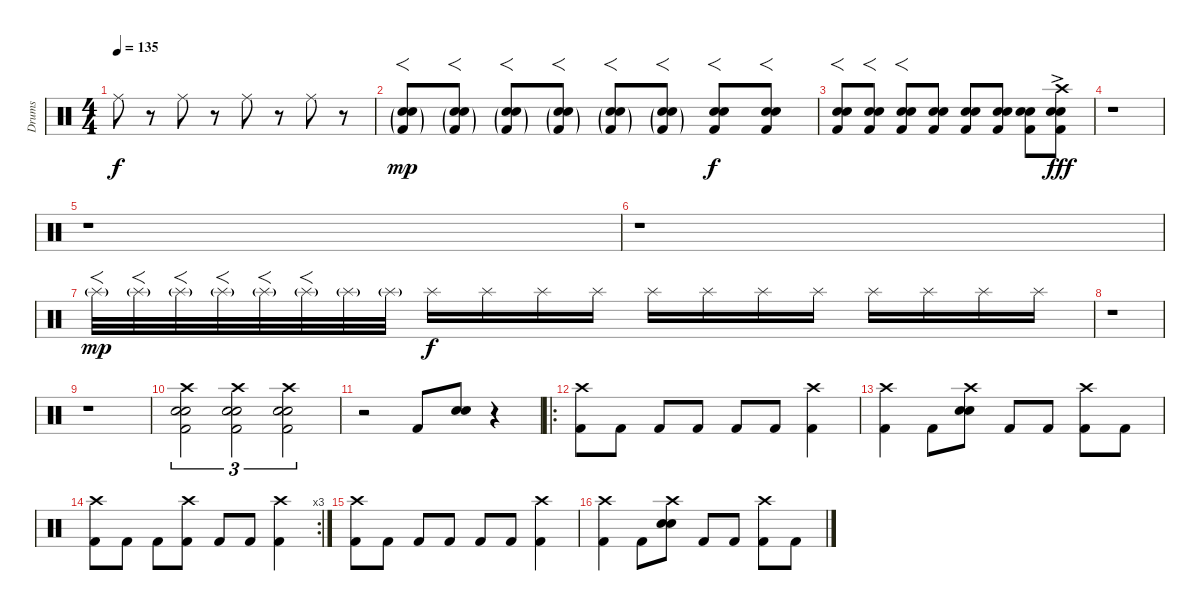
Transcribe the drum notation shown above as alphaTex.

\track ("Drums" "Drums") {instrument percussion}
\staff {score}
\articulation defaults
\ts (4 4)
\tempo 135
\clef neutral
\ks c "Ride (middle)".8{dy f}
r.8 "Ride (middle)".8 r.8 "Ride (middle)".8 r.8 "Ride (middle)".8 r.8 |
("Electric Snare (hit)"{g} "Snare (hit) 2"{g} "Kick (hit) 2"{g}).8{f dy mp} ("Electric Snare (hit)"{g} "Snare (hit) 2"{g} "Kick (hit) 2"{g}).8{f} ("Electric Snare (hit)"{g} "Snare (hit) 2"{g} "Kick (hit) 2"{g}).8{f} ("Electric Snare (hit)"{g} "Snare (hit) 2"{g} "Kick (hit) 2"{g}).8{f} ("Electric Snare (hit)"{g} "Snare (hit) 2"{g} "Kick (hit) 2"{g}).8{f} ("Electric Snare (hit)"{g} "Snare (hit) 2"{g} "Kick (hit) 2"{g}).8{f} ("Electric Snare (hit)" "Snare (hit) 2" "Kick (hit) 2").8{f dy f} ("Electric Snare (hit)" "Snare (hit) 2" "Kick (hit) 2").8{f} |
("Electric Snare (hit)" "Snare (hit) 2" "Kick (hit) 2").8{f} ("Electric Snare (hit)" "Snare (hit) 2" "Kick (hit) 2").8{f} ("Electric Snare (hit)" "Snare (hit) 2" "Kick (hit) 2").8{f} ("Electric Snare (hit)" "Snare (hit) 2" "Kick (hit) 2").8 ("Electric Snare (hit)" "Snare (hit) 2" "Kick (hit) 2").8 ("Electric Snare (hit)" "Snare (hit) 2" "Kick (hit) 2").8 ("Electric Snare (hit)" "Snare (hit) 2" "Kick (hit) 2").8 ("Crash high (hit)"{ac} "Electric Snare (hit)" "Snare (hit) 2" "Kick (hit) 2").8{dy fff} |
r.1 |
r.1 |
r.1 |
"Splash (hit)"{g}.32{f dy mp} "Splash (hit)"{g}.32{f} "Splash (hit)"{g}.32{f} "Splash (hit)"{g}.32{f} "Splash (hit)"{g}.32{f} "Splash (hit)"{g}.32{f} "Splash (hit)"{g}.32 "Splash (hit)"{g}.32 "Splash (hit)".16{dy f} "Splash (hit)".16 "Splash (hit)".16 "Splash (hit)".16 "Splash (hit)".16 "Splash (hit)".16 "Splash (hit)".16 "Splash (hit)".16 "Splash (hit)".16 "Splash (hit)".16 "Splash (hit)".16 "Splash (hit)".16 |
r.1 |
r.1 |
("Crash high (hit)" "Snare (hit) 2" "Electric Snare (hit)" "Kick (hit) 2").2{tu (3 2)} ("Crash high (hit)" "Snare (hit) 2" "Electric Snare (hit)" "Kick (hit) 2").2{tu (3 2)} ("Crash high (hit)" "Snare (hit) 2" "Electric Snare (hit)" "Kick (hit) 2").2{tu (3 2)} |
r.2 "Kick (hit) 2".8 ("Snare (hit) 2" "Electric Snare (hit)").8 r.4 |
\ro
("Crash high (hit)" "Kick (hit) 2").8 "Kick (hit) 2".8 "Kick (hit) 2".8 "Kick (hit) 2".8 "Kick (hit) 2".8 "Kick (hit) 2".8 ("Crash high (hit)" "Kick (hit) 2").4 |
("Crash high (hit)" "Kick (hit) 2").4 "Kick (hit) 2".8 ("Crash high (hit)" "Electric Snare (hit)" "Snare (hit) 2").8 "Kick (hit) 2".8 "Kick (hit) 2".8 ("Crash high (hit)" "Kick (hit) 2").8 "Kick (hit) 2".8 |
\rc 3
("Crash high (hit)" "Kick (hit) 2").8 "Kick (hit) 2".8 "Kick (hit) 2".8 ("Crash high (hit)" "Kick (hit) 2").8 "Kick (hit) 2".8 "Kick (hit) 2".8 ("Crash high (hit)" "Kick (hit) 2").4 |
("Crash high (hit)" "Kick (hit) 2").8 "Kick (hit) 2".8 "Kick (hit) 2".8 "Kick (hit) 2".8 "Kick (hit) 2".8 "Kick (hit) 2".8 ("Crash high (hit)" "Kick (hit) 2").4 |
("Crash high (hit)" "Kick (hit) 2").4 "Kick (hit) 2".8 ("Crash high (hit)" "Electric Snare (hit)" "Snare (hit) 2").8 "Kick (hit) 2".8 "Kick (hit) 2".8 ("Crash high (hit)" "Kick (hit) 2").8 "Kick (hit) 2".8
